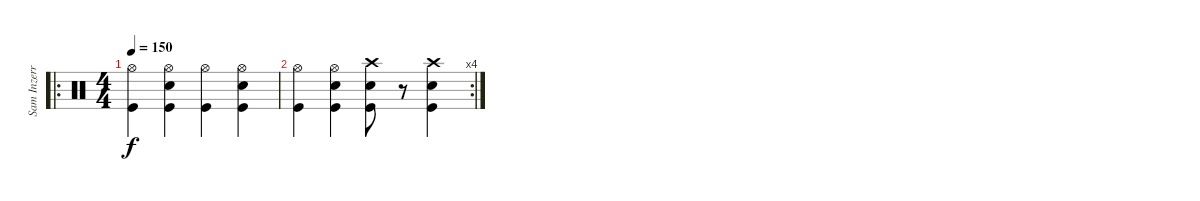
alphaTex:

\track ("Sam Inzerra(Percusión)" "Sam Inzerr") {instrument percussion}
\staff {score}
\articulation defaults
\ro
\ts (4 4)
\tempo 150
\clef neutral
\ks c
("Hi-Hat (open)" "Kick (hit)").4{dy f} ("Hi-Hat (open)" "Electric Snare (hit)" "Kick (hit)").4 ("Hi-Hat (open)" "Kick (hit)").4 ("Hi-Hat (open)" "Electric Snare (hit)" "Kick (hit)").4 |
\rc 4
("Hi-Hat (open)" "Kick (hit)").4 ("Hi-Hat (open)" "Electric Snare (hit)" "Kick (hit)").4 ("Crash high (hit)" "Electric Snare (hit)" "Kick (hit)").8 r.8 ("Crash high (hit)" "Electric Snare (hit)" "Kick (hit)").4
